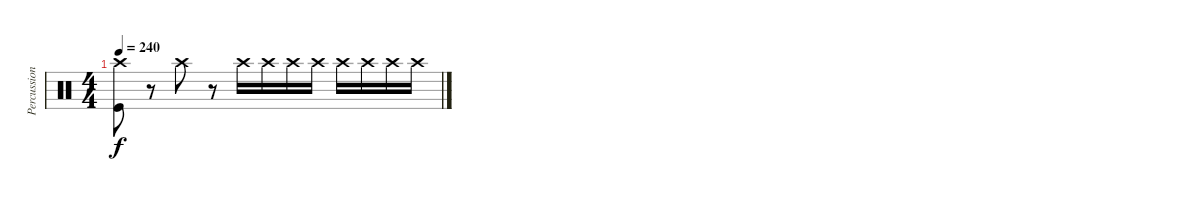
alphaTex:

\track ("Percussion" "Percussion") {instrument percussion}
\staff {score}
\articulation defaults
\ts (4 4)
\tempo 240
\clef neutral
\ks c
("Kick (hit)" "Crash high (hit)").8{dy f} r.8 "Crash high (hit)".8 r.8 "Crash high (hit)".16 "Crash high (hit)".16 "Crash high (hit)".16 "Crash high (hit)".16 "Crash high (hit)".16 "Crash high (hit)".16 "Crash high (hit)".16 "Crash high (hit)".16
